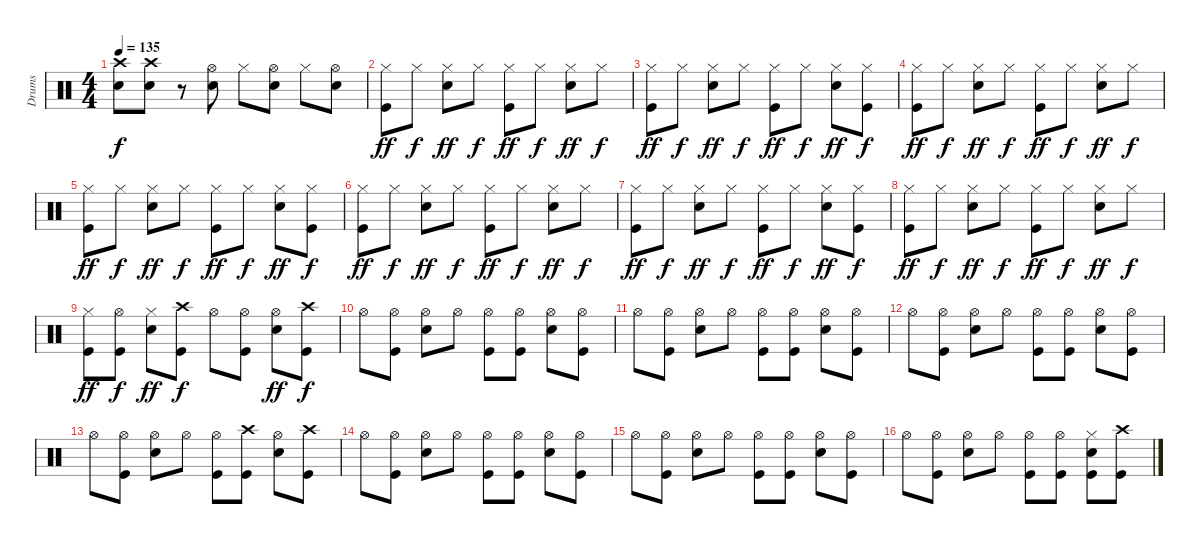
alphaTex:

\track ("Drums" "Drums") {instrument percussion}
\staff {score}
\articulation defaults
\ts (4 4)
\tempo 135
\clef neutral
\ks c
("Crash high (hit)" "Snare (hit) 2").8{dy f} ("Crash high (hit)" "Snare (hit) 2").8 r.8 ("Hi-Hat (open)" "Snare (hit) 2").8 "Hi-Hat (closed)".8 ("Hi-Hat (open)" "Snare (hit) 2").8 "Hi-Hat (closed)".8 ("Hi-Hat (open)" "Snare (hit) 2").8 |
("Hi-Hat (closed)" "Kick (hit)").8{dy ff} "Hi-Hat (closed)".8{dy f} ("Hi-Hat (closed)" "Snare (hit) 2").8{dy ff} "Hi-Hat (closed)".8{dy f} ("Hi-Hat (closed)" "Kick (hit)").8{dy ff} "Hi-Hat (closed)".8{dy f} ("Hi-Hat (closed)" "Snare (hit) 2").8{dy ff} "Hi-Hat (closed)".8{dy f} |
("Hi-Hat (closed)" "Kick (hit)").8{dy ff} "Hi-Hat (closed)".8{dy f} ("Hi-Hat (closed)" "Snare (hit) 2").8{dy ff} "Hi-Hat (closed)".8{dy f} ("Hi-Hat (closed)" "Kick (hit)").8{dy ff} "Hi-Hat (closed)".8{dy f} ("Hi-Hat (closed)" "Snare (hit) 2").8{dy ff} ("Hi-Hat (closed)" "Kick (hit)").8{dy f} |
("Hi-Hat (closed)" "Kick (hit)").8{dy ff} "Hi-Hat (closed)".8{dy f} ("Hi-Hat (closed)" "Snare (hit) 2").8{dy ff} "Hi-Hat (closed)".8{dy f} ("Hi-Hat (closed)" "Kick (hit)").8{dy ff} "Hi-Hat (closed)".8{dy f} ("Hi-Hat (closed)" "Snare (hit) 2").8{dy ff} "Hi-Hat (closed)".8{dy f} |
("Hi-Hat (closed)" "Kick (hit)").8{dy ff} "Hi-Hat (closed)".8{dy f} ("Hi-Hat (closed)" "Snare (hit) 2").8{dy ff} "Hi-Hat (closed)".8{dy f} ("Hi-Hat (closed)" "Kick (hit)").8{dy ff} "Hi-Hat (closed)".8{dy f} ("Hi-Hat (closed)" "Snare (hit) 2").8{dy ff} ("Hi-Hat (closed)" "Kick (hit)").8{dy f} |
("Hi-Hat (closed)" "Kick (hit)").8{dy ff} "Hi-Hat (closed)".8{dy f} ("Hi-Hat (closed)" "Snare (hit) 2").8{dy ff} "Hi-Hat (closed)".8{dy f} ("Hi-Hat (closed)" "Kick (hit)").8{dy ff} "Hi-Hat (closed)".8{dy f} ("Hi-Hat (closed)" "Snare (hit) 2").8{dy ff} "Hi-Hat (closed)".8{dy f} |
("Hi-Hat (closed)" "Kick (hit)").8{dy ff} "Hi-Hat (closed)".8{dy f} ("Hi-Hat (closed)" "Snare (hit) 2").8{dy ff} "Hi-Hat (closed)".8{dy f} ("Hi-Hat (closed)" "Kick (hit)").8{dy ff} "Hi-Hat (closed)".8{dy f} ("Hi-Hat (closed)" "Snare (hit) 2").8{dy ff} ("Hi-Hat (closed)" "Kick (hit)").8{dy f} |
("Hi-Hat (closed)" "Kick (hit)").8{dy ff} "Hi-Hat (closed)".8{dy f} ("Hi-Hat (closed)" "Snare (hit) 2").8{dy ff} "Hi-Hat (closed)".8{dy f} ("Hi-Hat (closed)" "Kick (hit)").8{dy ff} "Hi-Hat (closed)".8{dy f} ("Hi-Hat (closed)" "Snare (hit) 2").8{dy ff} "Hi-Hat (closed)".8{dy f} |
("Hi-Hat (closed)" "Kick (hit)").8{dy ff} ("Hi-Hat (open)" "Kick (hit)").8{dy f} ("Hi-Hat (closed)" "Snare (hit) 2").8{dy ff} ("Crash high (hit)" "Kick (hit)").8{dy f} "Hi-Hat (open)".8 ("Hi-Hat (open)" "Kick (hit)").8 ("Hi-Hat (open)" "Snare (hit) 2").8{dy ff} ("Crash high (hit)" "Kick (hit)").8{dy f} |
"Hi-Hat (open)".8 ("Hi-Hat (open)" "Kick (hit)").8 ("Hi-Hat (open)" "Snare (hit) 2").8 "Hi-Hat (open)".8 ("Hi-Hat (open)" "Kick (hit)").8 ("Hi-Hat (open)" "Kick (hit)").8 ("Hi-Hat (open)" "Snare (hit) 2").8 ("Hi-Hat (open)" "Kick (hit)").8 |
"Hi-Hat (open)".8 ("Hi-Hat (open)" "Kick (hit)").8 ("Hi-Hat (open)" "Snare (hit) 2").8 "Hi-Hat (open)".8 ("Hi-Hat (open)" "Kick (hit)").8 ("Hi-Hat (open)" "Kick (hit)").8 ("Hi-Hat (open)" "Snare (hit) 2").8 ("Hi-Hat (open)" "Kick (hit)").8 |
"Hi-Hat (open)".8 ("Hi-Hat (open)" "Kick (hit)").8 ("Hi-Hat (open)" "Snare (hit) 2").8 "Hi-Hat (open)".8 ("Hi-Hat (open)" "Kick (hit)").8 ("Hi-Hat (open)" "Kick (hit)").8 ("Hi-Hat (open)" "Snare (hit) 2").8 ("Hi-Hat (open)" "Kick (hit)").8 |
"Hi-Hat (open)".8 ("Hi-Hat (open)" "Kick (hit)").8 ("Hi-Hat (open)" "Snare (hit) 2").8 "Hi-Hat (open)".8 ("Hi-Hat (open)" "Kick (hit)").8 ("Crash high (hit)" "Kick (hit)").8 ("Hi-Hat (open)" "Snare (hit) 2").8 ("Crash high (hit)" "Kick (hit)").8 |
"Hi-Hat (open)".8 ("Hi-Hat (open)" "Kick (hit)").8 ("Hi-Hat (open)" "Snare (hit) 2").8 "Hi-Hat (open)".8 ("Hi-Hat (open)" "Kick (hit)").8 ("Hi-Hat (open)" "Kick (hit)").8 ("Hi-Hat (open)" "Snare (hit) 2").8 ("Hi-Hat (open)" "Kick (hit)").8 |
"Hi-Hat (open)".8 ("Hi-Hat (open)" "Kick (hit)").8 ("Hi-Hat (open)" "Snare (hit) 2").8 "Hi-Hat (open)".8 ("Hi-Hat (open)" "Kick (hit)").8 ("Hi-Hat (open)" "Kick (hit)").8 ("Hi-Hat (open)" "Snare (hit) 2").8 ("Hi-Hat (open)" "Kick (hit)").8 |
"Hi-Hat (open)".8 ("Hi-Hat (open)" "Kick (hit)").8 ("Hi-Hat (open)" "Snare (hit) 2").8 "Hi-Hat (open)".8 ("Hi-Hat (open)" "Kick (hit)").8 ("Hi-Hat (open)" "Kick (hit)").8 ("Hi-Hat (closed)" "Snare (hit) 2" "Kick (hit)").8 ("Crash high (hit)" "Kick (hit)").8
